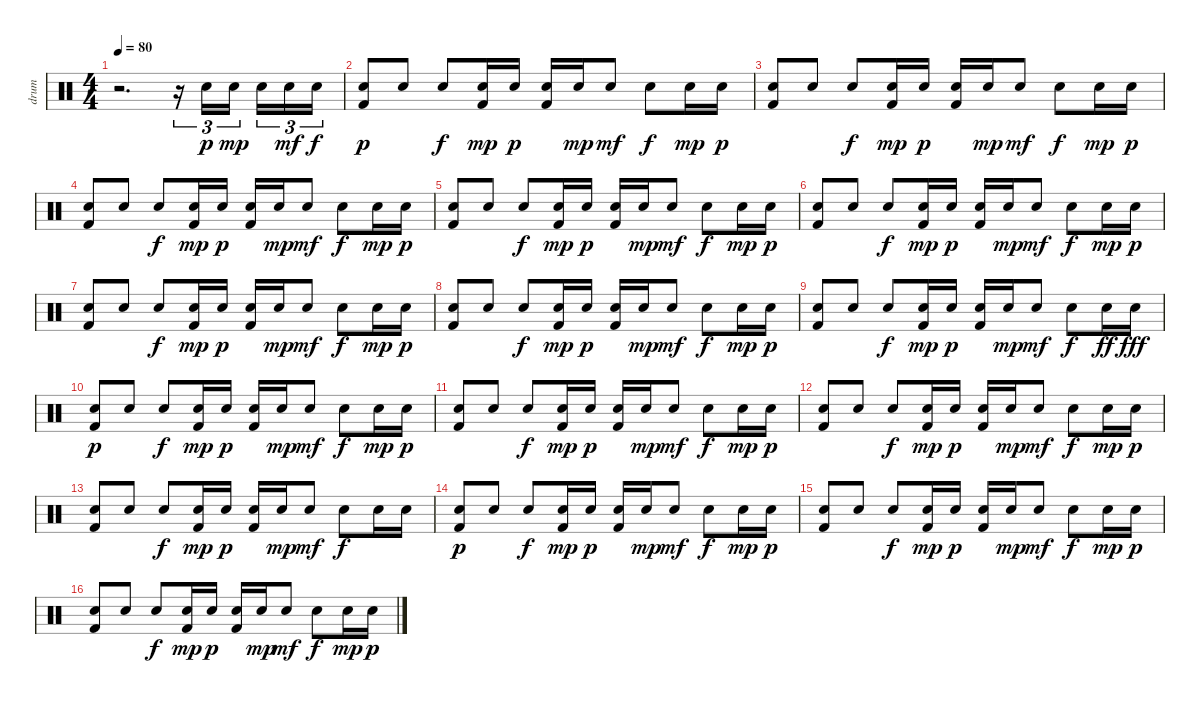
\track ("drum" "drum") {instrument percussion}
\staff {score}
\articulation defaults
\ts (4 4)
\tempo 80
\clef neutral
\ks c
r.2{d dy p} r.16{tu (3 2)} "Snare (hit) 2".16{tu (3 2)} "Snare (hit) 2".16{tu (3 2) dy mp} "Snare (hit) 2".16{tu (3 2)} "Snare (hit) 2".16{tu (3 2) dy mf} "Snare (hit) 2".16{tu (3 2) dy f} |
("Snare (hit) 2" "Kick (hit) 2").8{dy p} "Snare (hit) 2".8 "Snare (hit) 2".8{dy f} ("Snare (hit) 2" "Kick (hit) 2").16{dy mp} "Snare (hit) 2".16{dy p} ("Snare (hit) 2" "Kick (hit) 2").16 "Snare (hit) 2".16{dy mp} "Snare (hit) 2".8{dy mf} "Snare (hit) 2".8{dy f} "Snare (hit) 2".16{dy mp} "Snare (hit) 2".16{dy p} |
("Snare (hit) 2" "Kick (hit) 2").8 "Snare (hit) 2".8 "Snare (hit) 2".8{dy f} ("Snare (hit) 2" "Kick (hit) 2").16{dy mp} "Snare (hit) 2".16{dy p} ("Snare (hit) 2" "Kick (hit) 2").16 "Snare (hit) 2".16{dy mp} "Snare (hit) 2".8{dy mf} "Snare (hit) 2".8{dy f} "Snare (hit) 2".16{dy mp} "Snare (hit) 2".16{dy p} |
("Snare (hit) 2" "Kick (hit) 2").8 "Snare (hit) 2".8 "Snare (hit) 2".8{dy f} ("Snare (hit) 2" "Kick (hit) 2").16{dy mp} "Snare (hit) 2".16{dy p} ("Snare (hit) 2" "Kick (hit) 2").16 "Snare (hit) 2".16{dy mp} "Snare (hit) 2".8{dy mf} "Snare (hit) 2".8{dy f} "Snare (hit) 2".16{dy mp} "Snare (hit) 2".16{dy p} |
("Snare (hit) 2" "Kick (hit) 2").8 "Snare (hit) 2".8 "Snare (hit) 2".8{dy f} ("Snare (hit) 2" "Kick (hit) 2").16{dy mp} "Snare (hit) 2".16{dy p} ("Snare (hit) 2" "Kick (hit) 2").16 "Snare (hit) 2".16{dy mp} "Snare (hit) 2".8{dy mf} "Snare (hit) 2".8{dy f} "Snare (hit) 2".16{dy mp} "Snare (hit) 2".16{dy p} |
("Snare (hit) 2" "Kick (hit) 2").8 "Snare (hit) 2".8 "Snare (hit) 2".8{dy f} ("Snare (hit) 2" "Kick (hit) 2").16{dy mp} "Snare (hit) 2".16{dy p} ("Snare (hit) 2" "Kick (hit) 2").16 "Snare (hit) 2".16{dy mp} "Snare (hit) 2".8{dy mf} "Snare (hit) 2".8{dy f} "Snare (hit) 2".16{dy mp} "Snare (hit) 2".16{dy p} |
("Snare (hit) 2" "Kick (hit) 2").8 "Snare (hit) 2".8 "Snare (hit) 2".8{dy f} ("Snare (hit) 2" "Kick (hit) 2").16{dy mp} "Snare (hit) 2".16{dy p} ("Snare (hit) 2" "Kick (hit) 2").16 "Snare (hit) 2".16{dy mp} "Snare (hit) 2".8{dy mf} "Snare (hit) 2".8{dy f} "Snare (hit) 2".16{dy mp} "Snare (hit) 2".16{dy p} |
("Snare (hit) 2" "Kick (hit) 2").8 "Snare (hit) 2".8 "Snare (hit) 2".8{dy f} ("Snare (hit) 2" "Kick (hit) 2").16{dy mp} "Snare (hit) 2".16{dy p} ("Snare (hit) 2" "Kick (hit) 2").16 "Snare (hit) 2".16{dy mp} "Snare (hit) 2".8{dy mf} "Snare (hit) 2".8{dy f} "Snare (hit) 2".16{dy mp} "Snare (hit) 2".16{dy p} |
("Snare (hit) 2" "Kick (hit) 2").8 "Snare (hit) 2".8 "Snare (hit) 2".8{dy f} ("Snare (hit) 2" "Kick (hit) 2").16{dy mp} "Snare (hit) 2".16{dy p} ("Snare (hit) 2" "Kick (hit) 2").16 "Snare (hit) 2".16{dy mp} "Snare (hit) 2".8{dy mf} "Snare (hit) 2".8{dy f} "Snare (hit) 2".16{dy ff} "Snare (hit) 2".16{dy fff} |
("Snare (hit) 2" "Kick (hit) 2").8{dy p} "Snare (hit) 2".8 "Snare (hit) 2".8{dy f} ("Snare (hit) 2" "Kick (hit) 2").16{dy mp} "Snare (hit) 2".16{dy p} ("Snare (hit) 2" "Kick (hit) 2").16 "Snare (hit) 2".16{dy mp} "Snare (hit) 2".8{dy mf} "Snare (hit) 2".8{dy f} "Snare (hit) 2".16{dy mp} "Snare (hit) 2".16{dy p} |
("Snare (hit) 2" "Kick (hit) 2").8 "Snare (hit) 2".8 "Snare (hit) 2".8{dy f} ("Snare (hit) 2" "Kick (hit) 2").16{dy mp} "Snare (hit) 2".16{dy p} ("Snare (hit) 2" "Kick (hit) 2").16 "Snare (hit) 2".16{dy mp} "Snare (hit) 2".8{dy mf} "Snare (hit) 2".8{dy f} "Snare (hit) 2".16{dy mp} "Snare (hit) 2".16{dy p} |
("Snare (hit) 2" "Kick (hit) 2").8 "Snare (hit) 2".8 "Snare (hit) 2".8{dy f} ("Snare (hit) 2" "Kick (hit) 2").16{dy mp} "Snare (hit) 2".16{dy p} ("Snare (hit) 2" "Kick (hit) 2").16 "Snare (hit) 2".16{dy mp} "Snare (hit) 2".8{dy mf} "Snare (hit) 2".8{dy f} "Snare (hit) 2".16{dy mp} "Snare (hit) 2".16{dy p} |
("Snare (hit) 2" "Kick (hit) 2").8 "Snare (hit) 2".8 "Snare (hit) 2".8{dy f} ("Snare (hit) 2" "Kick (hit) 2").16{dy mp} "Snare (hit) 2".16{dy p} ("Snare (hit) 2" "Kick (hit) 2").16 "Snare (hit) 2".16{dy mp} "Snare (hit) 2".8{dy mf} "Snare (hit) 2".8{dy f} "Snare (hit) 2".16 "Snare (hit) 2".16 |
("Snare (hit) 2" "Kick (hit) 2").8{dy p} "Snare (hit) 2".8 "Snare (hit) 2".8{dy f} ("Snare (hit) 2" "Kick (hit) 2").16{dy mp} "Snare (hit) 2".16{dy p} ("Snare (hit) 2" "Kick (hit) 2").16 "Snare (hit) 2".16{dy mp} "Snare (hit) 2".8{dy mf} "Snare (hit) 2".8{dy f} "Snare (hit) 2".16{dy mp} "Snare (hit) 2".16{dy p} |
("Snare (hit) 2" "Kick (hit) 2").8 "Snare (hit) 2".8 "Snare (hit) 2".8{dy f} ("Snare (hit) 2" "Kick (hit) 2").16{dy mp} "Snare (hit) 2".16{dy p} ("Snare (hit) 2" "Kick (hit) 2").16 "Snare (hit) 2".16{dy mp} "Snare (hit) 2".8{dy mf} "Snare (hit) 2".8{dy f} "Snare (hit) 2".16{dy mp} "Snare (hit) 2".16{dy p} |
("Snare (hit) 2" "Kick (hit) 2").8 "Snare (hit) 2".8 "Snare (hit) 2".8{dy f} ("Snare (hit) 2" "Kick (hit) 2").16{dy mp} "Snare (hit) 2".16{dy p} ("Snare (hit) 2" "Kick (hit) 2").16 "Snare (hit) 2".16{dy mp} "Snare (hit) 2".8{dy mf} "Snare (hit) 2".8{dy f} "Snare (hit) 2".16{dy mp} "Snare (hit) 2".16{dy p}
